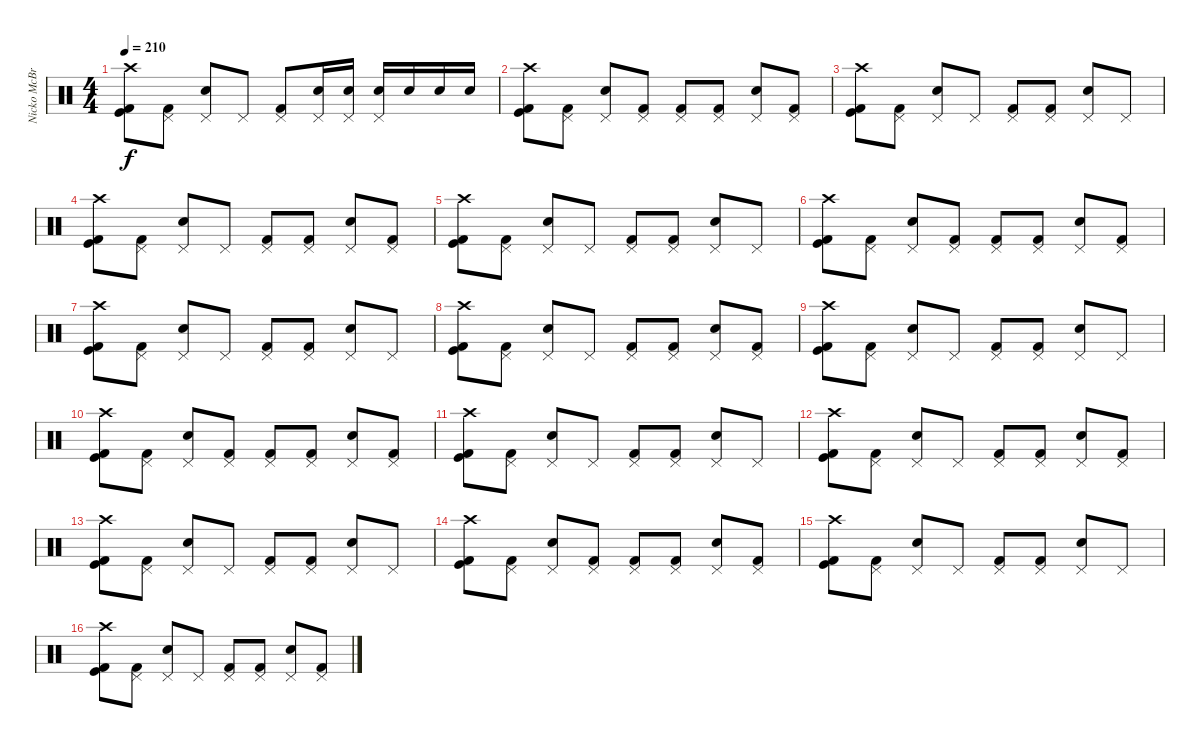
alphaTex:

\track ("Nicko McBrain" "Nicko McBr") {instrument percussion}
\staff {score}
\articulation defaults
\ts (4 4)
\tempo 210
\clef neutral
\ks c
("Crash high (hit)" "Kick (hit)" "Kick (hit) 2").8{dy f} ("Pedal Hi-Hat (hit)" "Kick (hit) 2").8 ("Pedal Hi-Hat (hit)" "Snare (hit) 2").8 "Pedal Hi-Hat (hit)".8 ("Pedal Hi-Hat (hit)" "Kick (hit) 2").8 ("Pedal Hi-Hat (hit)" "Snare (hit) 2").16 ("Pedal Hi-Hat (hit)" "Snare (hit) 2").16 ("Pedal Hi-Hat (hit)" "Snare (hit) 2").16 "Snare (hit) 2".16 "Snare (hit) 2".16 "Snare (hit) 2".16 |
("Crash high (hit)" "Kick (hit)" "Kick (hit) 2").8 ("Pedal Hi-Hat (hit)" "Kick (hit) 2").8 ("Pedal Hi-Hat (hit)" "Snare (hit) 2").8 ("Pedal Hi-Hat (hit)" "Kick (hit) 2").8 ("Pedal Hi-Hat (hit)" "Kick (hit) 2").8 ("Pedal Hi-Hat (hit)" "Kick (hit) 2").8 ("Pedal Hi-Hat (hit)" "Snare (hit) 2").8 ("Pedal Hi-Hat (hit)" "Kick (hit) 2").8 |
("Crash high (hit)" "Kick (hit)" "Kick (hit) 2").8 ("Pedal Hi-Hat (hit)" "Kick (hit) 2").8 ("Pedal Hi-Hat (hit)" "Snare (hit) 2").8 "Pedal Hi-Hat (hit)".8 ("Pedal Hi-Hat (hit)" "Kick (hit) 2").8 ("Pedal Hi-Hat (hit)" "Kick (hit) 2").8 ("Pedal Hi-Hat (hit)" "Snare (hit) 2").8 "Pedal Hi-Hat (hit)".8 |
("Crash high (hit)" "Kick (hit)" "Kick (hit) 2").8 ("Pedal Hi-Hat (hit)" "Kick (hit) 2").8 ("Pedal Hi-Hat (hit)" "Snare (hit) 2").8 "Pedal Hi-Hat (hit)".8 ("Pedal Hi-Hat (hit)" "Kick (hit) 2").8 ("Pedal Hi-Hat (hit)" "Kick (hit) 2").8 ("Pedal Hi-Hat (hit)" "Snare (hit) 2").8 ("Pedal Hi-Hat (hit)" "Kick (hit) 2").8 |
("Crash high (hit)" "Kick (hit)" "Kick (hit) 2").8 ("Pedal Hi-Hat (hit)" "Kick (hit) 2").8 ("Pedal Hi-Hat (hit)" "Snare (hit) 2").8 "Pedal Hi-Hat (hit)".8 ("Pedal Hi-Hat (hit)" "Kick (hit) 2").8 ("Pedal Hi-Hat (hit)" "Kick (hit) 2").8 ("Pedal Hi-Hat (hit)" "Snare (hit) 2").8 "Pedal Hi-Hat (hit)".8 |
("Crash high (hit)" "Kick (hit)" "Kick (hit) 2").8 ("Pedal Hi-Hat (hit)" "Kick (hit) 2").8 ("Pedal Hi-Hat (hit)" "Snare (hit) 2").8 ("Pedal Hi-Hat (hit)" "Kick (hit) 2").8 ("Pedal Hi-Hat (hit)" "Kick (hit) 2").8 ("Pedal Hi-Hat (hit)" "Kick (hit) 2").8 ("Pedal Hi-Hat (hit)" "Snare (hit) 2").8 ("Pedal Hi-Hat (hit)" "Kick (hit) 2").8 |
("Crash high (hit)" "Kick (hit)" "Kick (hit) 2").8 ("Pedal Hi-Hat (hit)" "Kick (hit) 2").8 ("Pedal Hi-Hat (hit)" "Snare (hit) 2").8 "Pedal Hi-Hat (hit)".8 ("Pedal Hi-Hat (hit)" "Kick (hit) 2").8 ("Pedal Hi-Hat (hit)" "Kick (hit) 2").8 ("Pedal Hi-Hat (hit)" "Snare (hit) 2").8 "Pedal Hi-Hat (hit)".8 |
("Crash high (hit)" "Kick (hit)" "Kick (hit) 2").8 ("Pedal Hi-Hat (hit)" "Kick (hit) 2").8 ("Pedal Hi-Hat (hit)" "Snare (hit) 2").8 "Pedal Hi-Hat (hit)".8 ("Pedal Hi-Hat (hit)" "Kick (hit) 2").8 ("Pedal Hi-Hat (hit)" "Kick (hit) 2").8 ("Pedal Hi-Hat (hit)" "Snare (hit) 2").8 ("Pedal Hi-Hat (hit)" "Kick (hit) 2").8 |
("Crash high (hit)" "Kick (hit)" "Kick (hit) 2").8 ("Pedal Hi-Hat (hit)" "Kick (hit) 2").8 ("Pedal Hi-Hat (hit)" "Snare (hit) 2").8 "Pedal Hi-Hat (hit)".8 ("Pedal Hi-Hat (hit)" "Kick (hit) 2").8 ("Pedal Hi-Hat (hit)" "Kick (hit) 2").8 ("Pedal Hi-Hat (hit)" "Snare (hit) 2").8 "Pedal Hi-Hat (hit)".8 |
("Crash high (hit)" "Kick (hit)" "Kick (hit) 2").8 ("Pedal Hi-Hat (hit)" "Kick (hit) 2").8 ("Pedal Hi-Hat (hit)" "Snare (hit) 2").8 ("Pedal Hi-Hat (hit)" "Kick (hit) 2").8 ("Pedal Hi-Hat (hit)" "Kick (hit) 2").8 ("Pedal Hi-Hat (hit)" "Kick (hit) 2").8 ("Pedal Hi-Hat (hit)" "Snare (hit) 2").8 ("Pedal Hi-Hat (hit)" "Kick (hit) 2").8 |
("Crash high (hit)" "Kick (hit)" "Kick (hit) 2").8 ("Pedal Hi-Hat (hit)" "Kick (hit) 2").8 ("Pedal Hi-Hat (hit)" "Snare (hit) 2").8 "Pedal Hi-Hat (hit)".8 ("Pedal Hi-Hat (hit)" "Kick (hit) 2").8 ("Pedal Hi-Hat (hit)" "Kick (hit) 2").8 ("Pedal Hi-Hat (hit)" "Snare (hit) 2").8 "Pedal Hi-Hat (hit)".8 |
("Crash high (hit)" "Kick (hit)" "Kick (hit) 2").8 ("Pedal Hi-Hat (hit)" "Kick (hit) 2").8 ("Pedal Hi-Hat (hit)" "Snare (hit) 2").8 "Pedal Hi-Hat (hit)".8 ("Pedal Hi-Hat (hit)" "Kick (hit) 2").8 ("Pedal Hi-Hat (hit)" "Kick (hit) 2").8 ("Pedal Hi-Hat (hit)" "Snare (hit) 2").8 ("Pedal Hi-Hat (hit)" "Kick (hit) 2").8 |
("Crash high (hit)" "Kick (hit)" "Kick (hit) 2").8 ("Pedal Hi-Hat (hit)" "Kick (hit) 2").8 ("Pedal Hi-Hat (hit)" "Snare (hit) 2").8 "Pedal Hi-Hat (hit)".8 ("Pedal Hi-Hat (hit)" "Kick (hit) 2").8 ("Pedal Hi-Hat (hit)" "Kick (hit) 2").8 ("Pedal Hi-Hat (hit)" "Snare (hit) 2").8 "Pedal Hi-Hat (hit)".8 |
("Crash high (hit)" "Kick (hit)" "Kick (hit) 2").8 ("Pedal Hi-Hat (hit)" "Kick (hit) 2").8 ("Pedal Hi-Hat (hit)" "Snare (hit) 2").8 ("Pedal Hi-Hat (hit)" "Kick (hit) 2").8 ("Pedal Hi-Hat (hit)" "Kick (hit) 2").8 ("Pedal Hi-Hat (hit)" "Kick (hit) 2").8 ("Pedal Hi-Hat (hit)" "Snare (hit) 2").8 ("Pedal Hi-Hat (hit)" "Kick (hit) 2").8 |
("Crash high (hit)" "Kick (hit)" "Kick (hit) 2").8 ("Pedal Hi-Hat (hit)" "Kick (hit) 2").8 ("Pedal Hi-Hat (hit)" "Snare (hit) 2").8 "Pedal Hi-Hat (hit)".8 ("Pedal Hi-Hat (hit)" "Kick (hit) 2").8 ("Pedal Hi-Hat (hit)" "Kick (hit) 2").8 ("Pedal Hi-Hat (hit)" "Snare (hit) 2").8 "Pedal Hi-Hat (hit)".8 |
("Crash high (hit)" "Kick (hit)" "Kick (hit) 2").8 ("Pedal Hi-Hat (hit)" "Kick (hit) 2").8 ("Pedal Hi-Hat (hit)" "Snare (hit) 2").8 "Pedal Hi-Hat (hit)".8 ("Pedal Hi-Hat (hit)" "Kick (hit) 2").8 ("Pedal Hi-Hat (hit)" "Kick (hit) 2").8 ("Pedal Hi-Hat (hit)" "Snare (hit) 2").8 ("Pedal Hi-Hat (hit)" "Kick (hit) 2").8
